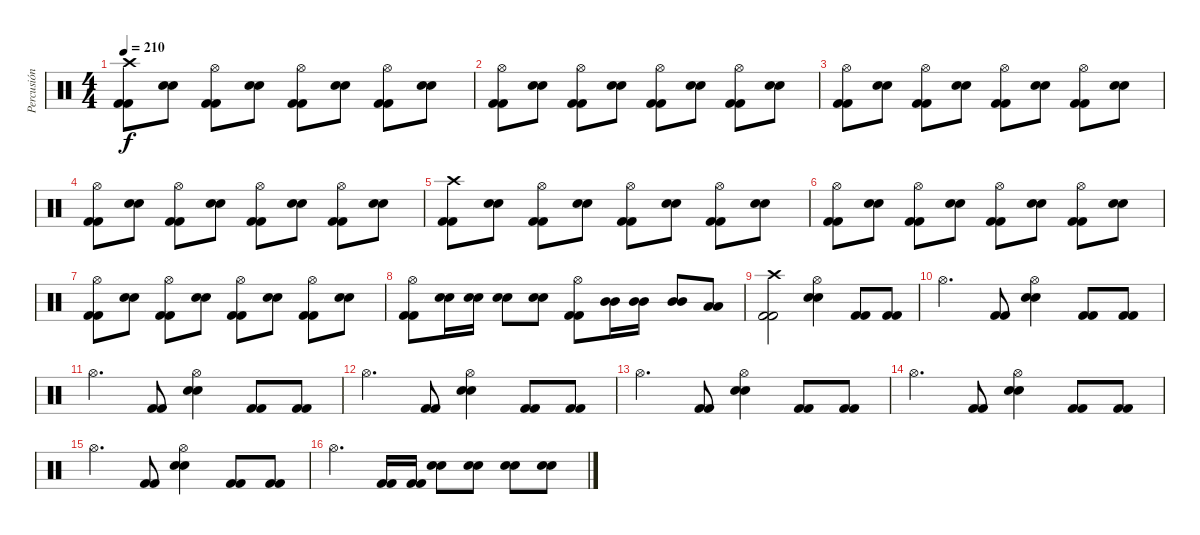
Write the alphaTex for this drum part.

\track ("Percusión" "Percusión") {instrument percussion}
\staff {score}
\articulation defaults
\ts (4 4)
\tempo 210
\clef neutral
\ks c
("Kick (hit) 2" "Kick (hit) 2" "Crash high (hit)").8{dy f} ("Electric Snare (hit)" "Electric Snare (hit)").8 ("Kick (hit) 2" "Kick (hit) 2" "Hi-Hat (open)").8 ("Electric Snare (hit)" "Electric Snare (hit)").8 ("Kick (hit) 2" "Kick (hit) 2" "Hi-Hat (open)").8 ("Electric Snare (hit)" "Electric Snare (hit)").8 ("Kick (hit) 2" "Kick (hit) 2" "Hi-Hat (open)").8 ("Electric Snare (hit)" "Electric Snare (hit)").8 |
("Kick (hit) 2" "Kick (hit) 2" "Hi-Hat (open)").8 ("Electric Snare (hit)" "Electric Snare (hit)").8 ("Kick (hit) 2" "Kick (hit) 2" "Hi-Hat (open)").8 ("Electric Snare (hit)" "Electric Snare (hit)").8 ("Kick (hit) 2" "Kick (hit) 2" "Hi-Hat (open)").8 ("Electric Snare (hit)" "Electric Snare (hit)").8 ("Kick (hit) 2" "Kick (hit) 2" "Hi-Hat (open)").8 ("Electric Snare (hit)" "Electric Snare (hit)").8 |
("Kick (hit) 2" "Kick (hit) 2" "Hi-Hat (open)").8 ("Electric Snare (hit)" "Electric Snare (hit)").8 ("Kick (hit) 2" "Kick (hit) 2" "Hi-Hat (open)").8 ("Electric Snare (hit)" "Electric Snare (hit)").8 ("Kick (hit) 2" "Kick (hit) 2" "Hi-Hat (open)").8 ("Electric Snare (hit)" "Electric Snare (hit)").8 ("Kick (hit) 2" "Kick (hit) 2" "Hi-Hat (open)").8 ("Electric Snare (hit)" "Electric Snare (hit)").8 |
("Kick (hit) 2" "Kick (hit) 2" "Hi-Hat (open)").8 ("Electric Snare (hit)" "Electric Snare (hit)").8 ("Kick (hit) 2" "Kick (hit) 2" "Hi-Hat (open)").8 ("Electric Snare (hit)" "Electric Snare (hit)").8 ("Kick (hit) 2" "Kick (hit) 2" "Hi-Hat (open)").8 ("Electric Snare (hit)" "Electric Snare (hit)").8 ("Kick (hit) 2" "Kick (hit) 2" "Hi-Hat (open)").8 ("Electric Snare (hit)" "Electric Snare (hit)").8 |
("Kick (hit) 2" "Kick (hit) 2" "Crash high (hit)").8 ("Electric Snare (hit)" "Electric Snare (hit)").8 ("Kick (hit) 2" "Kick (hit) 2" "Hi-Hat (open)").8 ("Electric Snare (hit)" "Electric Snare (hit)").8 ("Kick (hit) 2" "Kick (hit) 2" "Hi-Hat (open)").8 ("Electric Snare (hit)" "Electric Snare (hit)").8 ("Kick (hit) 2" "Kick (hit) 2" "Hi-Hat (open)").8 ("Electric Snare (hit)" "Electric Snare (hit)").8 |
("Kick (hit) 2" "Kick (hit) 2" "Hi-Hat (open)").8 ("Electric Snare (hit)" "Electric Snare (hit)").8 ("Kick (hit) 2" "Kick (hit) 2" "Hi-Hat (open)").8 ("Electric Snare (hit)" "Electric Snare (hit)").8 ("Kick (hit) 2" "Kick (hit) 2" "Hi-Hat (open)").8 ("Electric Snare (hit)" "Electric Snare (hit)").8 ("Kick (hit) 2" "Kick (hit) 2" "Hi-Hat (open)").8 ("Electric Snare (hit)" "Electric Snare (hit)").8 |
("Kick (hit) 2" "Kick (hit) 2" "Hi-Hat (open)").8 ("Electric Snare (hit)" "Electric Snare (hit)").8 ("Kick (hit) 2" "Kick (hit) 2" "Hi-Hat (open)").8 ("Electric Snare (hit)" "Electric Snare (hit)").8 ("Kick (hit) 2" "Kick (hit) 2" "Hi-Hat (open)").8 ("Electric Snare (hit)" "Electric Snare (hit)").8 ("Kick (hit) 2" "Kick (hit) 2" "Hi-Hat (open)").8 ("Electric Snare (hit)" "Electric Snare (hit)").8 |
("Kick (hit) 2" "Kick (hit) 2" "Hi-Hat (open)").8 ("Electric Snare (hit)" "Electric Snare (hit)").16 ("Electric Snare (hit)" "Electric Snare (hit)").16 ("Electric Snare (hit)" "Electric Snare (hit)").8 ("Electric Snare (hit)" "Electric Snare (hit)").8 ("Kick (hit) 2" "Kick (hit) 2" "Hi-Hat (open)").8 ("Mid Tom (hit)" "Mid Tom (hit)").16 ("Mid Tom (hit)" "Mid Tom (hit)").16 ("Mid Tom (hit)" "Mid Tom (hit)").8 ("Low Floor Tom (hit)" "Low Floor Tom (hit)").8 |
("Kick (hit) 2" "Kick (hit) 2" "Crash high (hit)").2 ("Electric Snare (hit)" "Electric Snare (hit)" "Hi-Hat (open)").4 ("Kick (hit) 2" "Kick (hit) 2").8 ("Kick (hit) 2" "Kick (hit) 2").8 |
"Hi-Hat (open)".4{d} ("Kick (hit) 2" "Kick (hit) 2").8 ("Electric Snare (hit)" "Electric Snare (hit)" "Hi-Hat (open)").4 ("Kick (hit) 2" "Kick (hit) 2").8 ("Kick (hit) 2" "Kick (hit) 2").8 |
"Hi-Hat (open)".4{d} ("Kick (hit) 2" "Kick (hit) 2").8 ("Electric Snare (hit)" "Electric Snare (hit)" "Hi-Hat (open)").4 ("Kick (hit) 2" "Kick (hit) 2").8 ("Kick (hit) 2" "Kick (hit) 2").8 |
"Hi-Hat (open)".4{d} ("Kick (hit) 2" "Kick (hit) 2").8 ("Electric Snare (hit)" "Electric Snare (hit)" "Hi-Hat (open)").4 ("Kick (hit) 2" "Kick (hit) 2").8 ("Kick (hit) 2" "Kick (hit) 2").8 |
"Hi-Hat (open)".4{d} ("Kick (hit) 2" "Kick (hit) 2").8 ("Electric Snare (hit)" "Electric Snare (hit)" "Hi-Hat (open)").4 ("Kick (hit) 2" "Kick (hit) 2").8 ("Kick (hit) 2" "Kick (hit) 2").8 |
"Hi-Hat (open)".4{d} ("Kick (hit) 2" "Kick (hit) 2").8 ("Electric Snare (hit)" "Electric Snare (hit)" "Hi-Hat (open)").4 ("Kick (hit) 2" "Kick (hit) 2").8 ("Kick (hit) 2" "Kick (hit) 2").8 |
"Hi-Hat (open)".4{d} ("Kick (hit) 2" "Kick (hit) 2").8 ("Electric Snare (hit)" "Electric Snare (hit)" "Hi-Hat (open)").4 ("Kick (hit) 2" "Kick (hit) 2").8 ("Kick (hit) 2" "Kick (hit) 2").8 |
"Hi-Hat (open)".4{d} ("Kick (hit) 2" "Kick (hit) 2").16 ("Kick (hit) 2" "Kick (hit) 2").16 ("Electric Snare (hit)" "Electric Snare (hit)").8 ("Electric Snare (hit)" "Electric Snare (hit)").8 ("Electric Snare (hit)" "Electric Snare (hit)").8 ("Electric Snare (hit)" "Electric Snare (hit)").8
